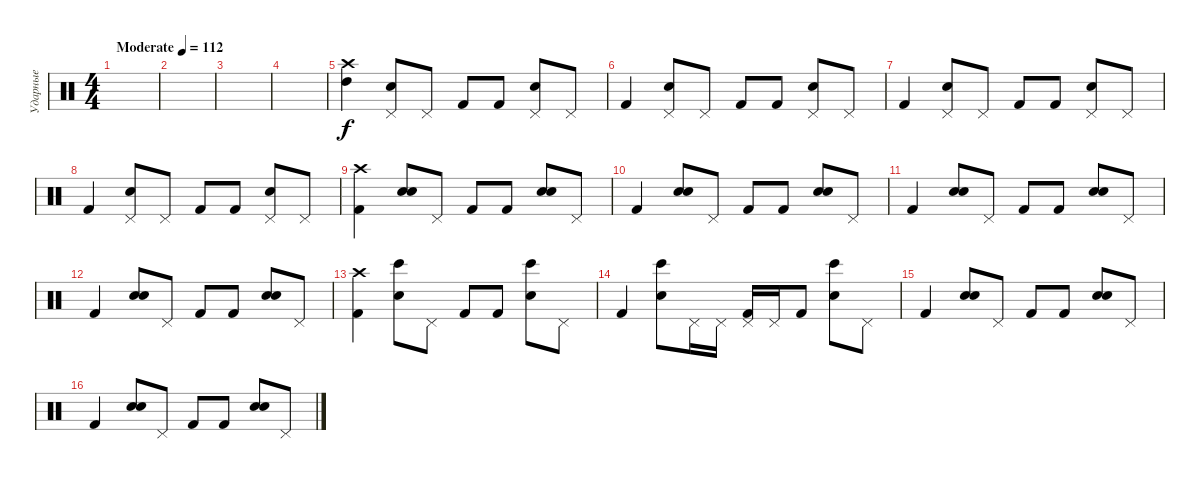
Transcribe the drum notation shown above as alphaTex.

\track ("Ударные" "Ударные") {instrument percussion}
\staff {score}
\articulation defaults
\ts (4 4)
\tempo (112 "Moderate")
\clef neutral
\ks c
|
|
|
|
("Crash high (hit)" "High Tom (hit)").4 ("Pedal Hi-Hat (hit)" "Snare (hit) 2").8 "Pedal Hi-Hat (hit)".8 "Kick (hit) 2".8 "Kick (hit) 2".8 ("Pedal Hi-Hat (hit)" "Snare (hit) 2").8 "Pedal Hi-Hat (hit)".8 |
"Kick (hit) 2".4 ("Pedal Hi-Hat (hit)" "Snare (hit) 2").8 "Pedal Hi-Hat (hit)".8 "Kick (hit) 2".8 "Kick (hit) 2".8 ("Pedal Hi-Hat (hit)" "Snare (hit) 2").8 "Pedal Hi-Hat (hit)".8 |
"Kick (hit) 2".4 ("Pedal Hi-Hat (hit)" "Snare (hit) 2").8 "Pedal Hi-Hat (hit)".8 "Kick (hit) 2".8 "Kick (hit) 2".8 ("Pedal Hi-Hat (hit)" "Snare (hit) 2").8 "Pedal Hi-Hat (hit)".8 |
"Kick (hit) 2".4 ("Pedal Hi-Hat (hit)" "Snare (hit) 2").8 "Pedal Hi-Hat (hit)".8 "Kick (hit) 2".8 "Kick (hit) 2".8 ("Pedal Hi-Hat (hit)" "Snare (hit) 2").8 "Pedal Hi-Hat (hit)".8 |
("Crash high (hit)" "Kick (hit) 2").4 ("Electric Snare (hit)" "Snare (hit) 2").8 "Pedal Hi-Hat (hit)".8 "Kick (hit) 2".8 "Kick (hit) 2".8 ("Electric Snare (hit)" "Snare (hit) 2").8 "Pedal Hi-Hat (hit)".8 |
"Kick (hit) 2".4 ("Electric Snare (hit)" "Snare (hit) 2").8 "Pedal Hi-Hat (hit)".8 "Kick (hit) 2".8 "Kick (hit) 2".8 ("Electric Snare (hit)" "Snare (hit) 2").8 "Pedal Hi-Hat (hit)".8 |
"Kick (hit) 2".4 ("Electric Snare (hit)" "Snare (hit) 2").8 "Pedal Hi-Hat (hit)".8 "Kick (hit) 2".8 "Kick (hit) 2".8 ("Electric Snare (hit)" "Snare (hit) 2").8 "Pedal Hi-Hat (hit)".8 |
"Kick (hit) 2".4 ("Electric Snare (hit)" "Snare (hit) 2").8 "Pedal Hi-Hat (hit)".8 "Kick (hit) 2".8 "Kick (hit) 2".8 ("Electric Snare (hit)" "Snare (hit) 2").8 "Pedal Hi-Hat (hit)".8 |
("Crash high (hit)" "Kick (hit) 2").4 ("Bongo High (hit)" "Snare (hit) 2").8 "Pedal Hi-Hat (hit)".8 "Kick (hit) 2".8 "Kick (hit) 2".8 ("Bongo High (hit)" "Snare (hit) 2").8 "Pedal Hi-Hat (hit)".8 |
"Kick (hit) 2".4 ("Bongo High (hit)" "Snare (hit) 2").8 "Pedal Hi-Hat (hit)".16 "Pedal Hi-Hat (hit)".16 ("Pedal Hi-Hat (hit)" "Kick (hit) 2").16 "Pedal Hi-Hat (hit)".16 "Kick (hit) 2".8 ("Bongo High (hit)" "Snare (hit) 2").8 "Pedal Hi-Hat (hit)".8 |
"Kick (hit) 2".4 ("Electric Snare (hit)" "Snare (hit) 2").8 "Pedal Hi-Hat (hit)".8 "Kick (hit) 2".8 "Kick (hit) 2".8 ("Electric Snare (hit)" "Snare (hit) 2").8 "Pedal Hi-Hat (hit)".8 |
"Kick (hit) 2".4 ("Electric Snare (hit)" "Snare (hit) 2").8 "Pedal Hi-Hat (hit)".8 "Kick (hit) 2".8 "Kick (hit) 2".8 ("Electric Snare (hit)" "Snare (hit) 2").8 "Pedal Hi-Hat (hit)".8
